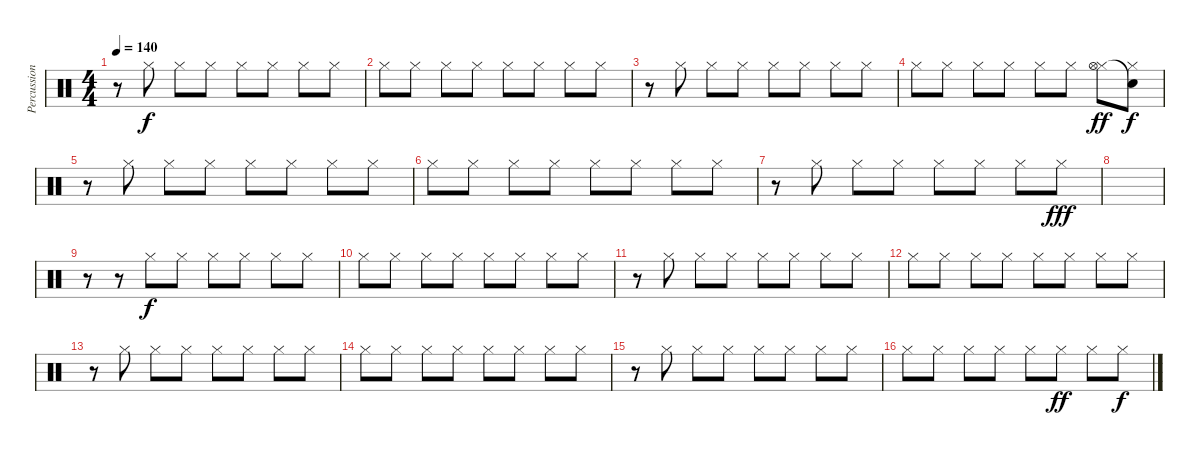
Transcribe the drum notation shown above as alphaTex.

\track ("Percussion" "Percussion") {instrument percussion}
\staff {score}
\articulation defaults
\ts (4 4)
\tempo 140
\clef neutral
\ks c
r.8{dy f} "Hi-Hat (closed)".8 "Hi-Hat (closed)".8 "Hi-Hat (closed)".8 "Hi-Hat (closed)".8 "Hi-Hat (closed)".8 "Hi-Hat (closed)".8 "Hi-Hat (closed)".8 |
"Hi-Hat (closed)".8 "Hi-Hat (closed)".8 "Hi-Hat (closed)".8 "Hi-Hat (closed)".8 "Hi-Hat (closed)".8 "Hi-Hat (closed)".8 "Hi-Hat (closed)".8 "Hi-Hat (closed)".8 |
r.8 "Hi-Hat (closed)".8 "Hi-Hat (closed)".8 "Hi-Hat (closed)".8 "Hi-Hat (closed)".8 "Hi-Hat (closed)".8 "Hi-Hat (closed)".8 "Hi-Hat (closed)".8 |
"Hi-Hat (closed)".8 "Hi-Hat (closed)".8 "Hi-Hat (closed)".8 "Hi-Hat (closed)".8 "Hi-Hat (closed)".8 "Hi-Hat (closed)".8 ("Hi-Hat (closed)" "Hi-Hat (open)").8{dy ff} ("Hi-Hat (closed)" "Snare (hit)"{t}).8{dy f} |
r.8 "Hi-Hat (closed)".8 "Hi-Hat (closed)".8 "Hi-Hat (closed)".8 "Hi-Hat (closed)".8 "Hi-Hat (closed)".8 "Hi-Hat (closed)".8 "Hi-Hat (closed)".8 |
"Hi-Hat (closed)".8 "Hi-Hat (closed)".8 "Hi-Hat (closed)".8 "Hi-Hat (closed)".8 "Hi-Hat (closed)".8 "Hi-Hat (closed)".8 "Hi-Hat (closed)".8 "Hi-Hat (closed)".8 |
r.8 "Hi-Hat (closed)".8 "Hi-Hat (closed)".8 "Hi-Hat (closed)".8 "Hi-Hat (closed)".8 "Hi-Hat (closed)".8 "Hi-Hat (closed)".8 "Hi-Hat (closed)".8{dy fff} |
|
r.8 r.8 "Hi-Hat (closed)".8{dy f} "Hi-Hat (closed)".8 "Hi-Hat (closed)".8 "Hi-Hat (closed)".8 "Hi-Hat (closed)".8 "Hi-Hat (closed)".8 |
"Hi-Hat (closed)".8 "Hi-Hat (closed)".8 "Hi-Hat (closed)".8 "Hi-Hat (closed)".8 "Hi-Hat (closed)".8 "Hi-Hat (closed)".8 "Hi-Hat (closed)".8 "Hi-Hat (closed)".8 |
r.8 "Hi-Hat (closed)".8 "Hi-Hat (closed)".8 "Hi-Hat (closed)".8 "Hi-Hat (closed)".8 "Hi-Hat (closed)".8 "Hi-Hat (closed)".8 "Hi-Hat (closed)".8 |
"Hi-Hat (closed)".8 "Hi-Hat (closed)".8 "Hi-Hat (closed)".8 "Hi-Hat (closed)".8 "Hi-Hat (closed)".8 "Hi-Hat (closed)".8 "Hi-Hat (closed)".8 "Hi-Hat (closed)".8 |
r.8 "Hi-Hat (closed)".8 "Hi-Hat (closed)".8 "Hi-Hat (closed)".8 "Hi-Hat (closed)".8 "Hi-Hat (closed)".8 "Hi-Hat (closed)".8 "Hi-Hat (closed)".8 |
"Hi-Hat (closed)".8 "Hi-Hat (closed)".8 "Hi-Hat (closed)".8 "Hi-Hat (closed)".8 "Hi-Hat (closed)".8 "Hi-Hat (closed)".8 "Hi-Hat (closed)".8 "Hi-Hat (closed)".8 |
r.8 "Hi-Hat (closed)".8 "Hi-Hat (closed)".8 "Hi-Hat (closed)".8 "Hi-Hat (closed)".8 "Hi-Hat (closed)".8 "Hi-Hat (closed)".8 "Hi-Hat (closed)".8 |
"Hi-Hat (closed)".8 "Hi-Hat (closed)".8 "Hi-Hat (closed)".8 "Hi-Hat (closed)".8 "Hi-Hat (closed)".8 "Hi-Hat (closed)".8{dy ff} "Hi-Hat (closed)".8 "Hi-Hat (closed)".8{dy f}
